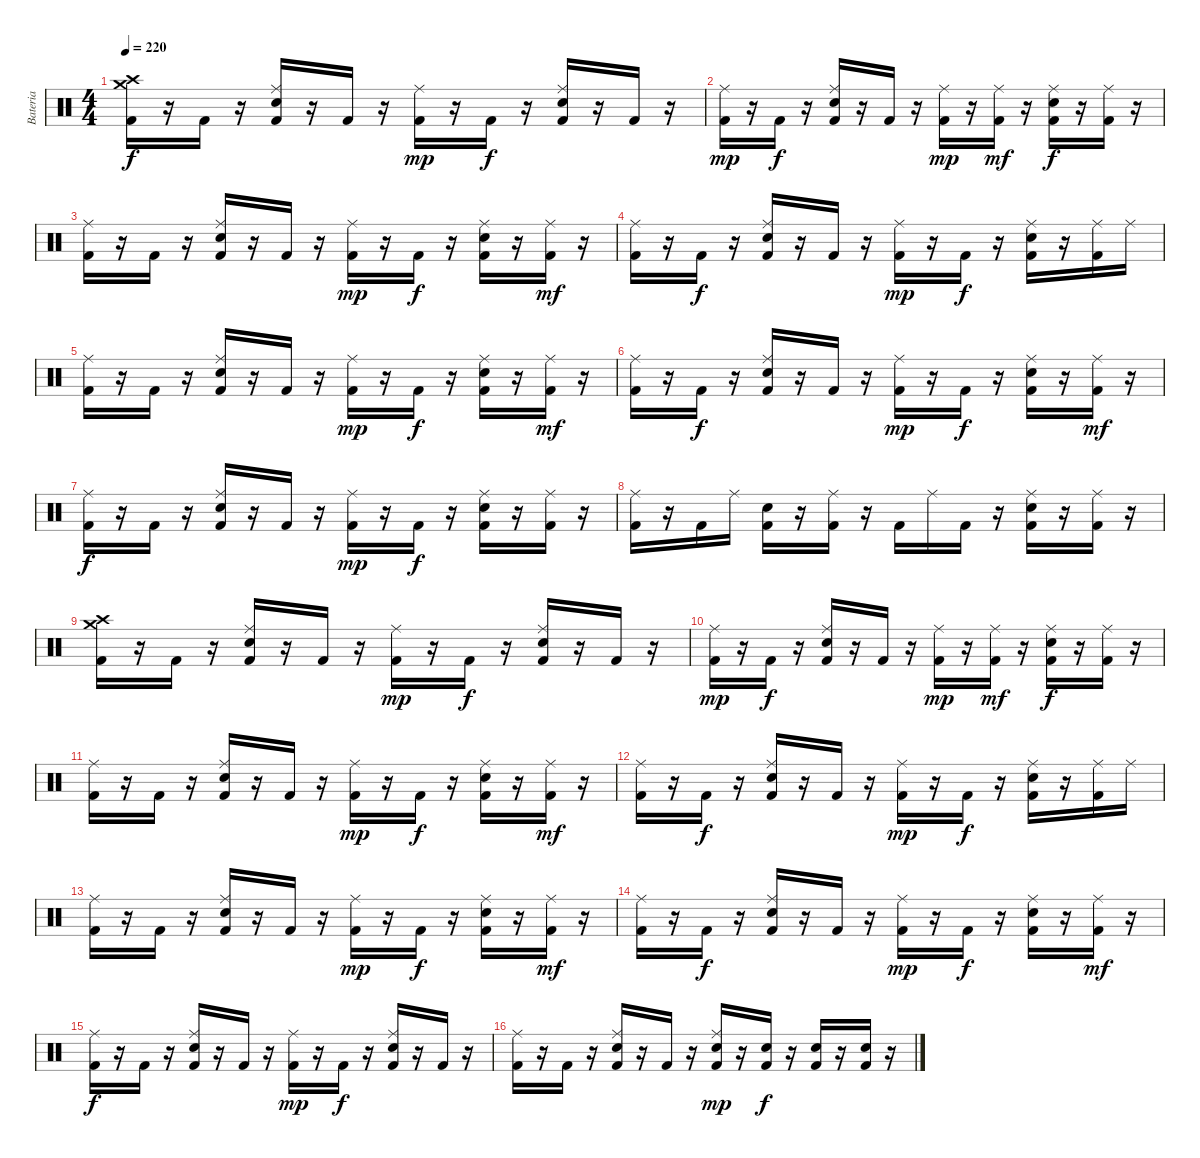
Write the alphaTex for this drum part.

\track ("Bateria" "Bateria") {instrument percussion}
\staff {score}
\articulation defaults
\ts (4 4)
\tempo 220
\clef neutral
\ks c
("Crash medium (hit)" "Crash high (hit)" "Kick (hit) 2").16{dy f} r.16 "Kick (hit) 2".16 r.16 ("Ride (middle)" "Electric Snare (hit)" "Kick (hit) 2").16 r.16 "Kick (hit) 2".16 r.16 ("Ride (middle)" "Kick (hit) 2").16{dy mp} r.16 "Kick (hit) 2".16{dy f} r.16 ("Ride (middle)" "Electric Snare (hit)" "Kick (hit) 2").16 r.16 "Kick (hit) 2".16 r.16 |
("Ride (middle)" "Kick (hit) 2").16{dy mp} r.16 "Kick (hit) 2".16{dy f} r.16 ("Ride (middle)" "Electric Snare (hit)" "Kick (hit) 2").16 r.16 "Kick (hit) 2".16 r.16 ("Ride (middle)" "Kick (hit) 2").16{dy mp} r.16 ("Ride (middle)" "Kick (hit) 2").16{dy mf} r.16 ("Ride (middle)" "Electric Snare (hit)" "Kick (hit) 2").16{dy f} r.16 ("Ride (middle)" "Kick (hit) 2").16 r.16 |
("Ride (middle)" "Kick (hit) 2").16 r.16 "Kick (hit) 2".16 r.16 ("Ride (middle)" "Electric Snare (hit)" "Kick (hit) 2").16 r.16 "Kick (hit) 2".16 r.16 ("Ride (middle)" "Kick (hit) 2").16{dy mp} r.16 "Kick (hit) 2".16{dy f} r.16 ("Ride (middle)" "Electric Snare (hit)" "Kick (hit) 2").16 r.16 ("Ride (middle)" "Kick (hit) 2").16{dy mf} r.16 |
("Ride (middle)" "Kick (hit) 2").16 r.16 "Kick (hit) 2".16{dy f} r.16 ("Ride (middle)" "Electric Snare (hit)" "Kick (hit) 2").16 r.16 "Kick (hit) 2".16 r.16 ("Ride (middle)" "Kick (hit) 2").16{dy mp} r.16 "Kick (hit) 2".16{dy f} r.16 ("Ride (middle)" "Electric Snare (hit)" "Kick (hit) 2").16 r.16 ("Ride (middle)" "Kick (hit) 2").16 "Ride (middle)".16 |
("Ride (middle)" "Kick (hit) 2").16 r.16 "Kick (hit) 2".16 r.16 ("Ride (middle)" "Electric Snare (hit)" "Kick (hit) 2").16 r.16 "Kick (hit) 2".16 r.16 ("Ride (middle)" "Kick (hit) 2").16{dy mp} r.16 "Kick (hit) 2".16{dy f} r.16 ("Ride (middle)" "Electric Snare (hit)" "Kick (hit) 2").16 r.16 ("Ride (middle)" "Kick (hit) 2").16{dy mf} r.16 |
("Ride (middle)" "Kick (hit) 2").16 r.16 "Kick (hit) 2".16{dy f} r.16 ("Ride (middle)" "Electric Snare (hit)" "Kick (hit) 2").16 r.16 "Kick (hit) 2".16 r.16 ("Ride (middle)" "Kick (hit) 2").16{dy mp} r.16 "Kick (hit) 2".16{dy f} r.16 ("Ride (middle)" "Electric Snare (hit)" "Kick (hit) 2").16 r.16 ("Ride (middle)" "Kick (hit) 2").16{dy mf} r.16 |
("Ride (middle)" "Kick (hit) 2").16{dy f} r.16 "Kick (hit) 2".16 r.16 ("Ride (middle)" "Electric Snare (hit)" "Kick (hit) 2").16 r.16 "Kick (hit) 2".16 r.16 ("Ride (middle)" "Kick (hit) 2").16{dy mp} r.16 "Kick (hit) 2".16{dy f} r.16 ("Ride (middle)" "Electric Snare (hit)" "Kick (hit) 2").16 r.16 ("Ride (middle)" "Kick (hit) 2").16 r.16 |
("Ride (middle)" "Kick (hit) 2").16 r.16 "Kick (hit) 2".16 "Ride (middle)".16 ("Electric Snare (hit)" "Kick (hit) 2").16 r.16 ("Ride (middle)" "Kick (hit) 2").16 r.16 "Kick (hit) 2".16 "Ride (middle)".16 "Kick (hit) 2".16 r.16 ("Ride (middle)" "Electric Snare (hit)" "Kick (hit) 2").16 r.16 ("Ride (middle)" "Kick (hit) 2").16 r.16 |
("Crash medium (hit)" "Crash high (hit)" "Kick (hit) 2").16 r.16 "Kick (hit) 2".16 r.16 ("Ride (middle)" "Electric Snare (hit)" "Kick (hit) 2").16 r.16 "Kick (hit) 2".16 r.16 ("Ride (middle)" "Kick (hit) 2").16{dy mp} r.16 "Kick (hit) 2".16{dy f} r.16 ("Ride (middle)" "Electric Snare (hit)" "Kick (hit) 2").16 r.16 "Kick (hit) 2".16 r.16 |
("Ride (middle)" "Kick (hit) 2").16{dy mp} r.16 "Kick (hit) 2".16{dy f} r.16 ("Ride (middle)" "Electric Snare (hit)" "Kick (hit) 2").16 r.16 "Kick (hit) 2".16 r.16 ("Ride (middle)" "Kick (hit) 2").16{dy mp} r.16 ("Ride (middle)" "Kick (hit) 2").16{dy mf} r.16 ("Ride (middle)" "Electric Snare (hit)" "Kick (hit) 2").16{dy f} r.16 ("Ride (middle)" "Kick (hit) 2").16 r.16 |
("Ride (middle)" "Kick (hit) 2").16 r.16 "Kick (hit) 2".16 r.16 ("Ride (middle)" "Electric Snare (hit)" "Kick (hit) 2").16 r.16 "Kick (hit) 2".16 r.16 ("Ride (middle)" "Kick (hit) 2").16{dy mp} r.16 "Kick (hit) 2".16{dy f} r.16 ("Ride (middle)" "Electric Snare (hit)" "Kick (hit) 2").16 r.16 ("Ride (middle)" "Kick (hit) 2").16{dy mf} r.16 |
("Ride (middle)" "Kick (hit) 2").16 r.16 "Kick (hit) 2".16{dy f} r.16 ("Ride (middle)" "Electric Snare (hit)" "Kick (hit) 2").16 r.16 "Kick (hit) 2".16 r.16 ("Ride (middle)" "Kick (hit) 2").16{dy mp} r.16 "Kick (hit) 2".16{dy f} r.16 ("Ride (middle)" "Electric Snare (hit)" "Kick (hit) 2").16 r.16 ("Ride (middle)" "Kick (hit) 2").16 "Ride (middle)".16 |
("Ride (middle)" "Kick (hit) 2").16 r.16 "Kick (hit) 2".16 r.16 ("Ride (middle)" "Electric Snare (hit)" "Kick (hit) 2").16 r.16 "Kick (hit) 2".16 r.16 ("Ride (middle)" "Kick (hit) 2").16{dy mp} r.16 "Kick (hit) 2".16{dy f} r.16 ("Ride (middle)" "Electric Snare (hit)" "Kick (hit) 2").16 r.16 ("Ride (middle)" "Kick (hit) 2").16{dy mf} r.16 |
("Ride (middle)" "Kick (hit) 2").16 r.16 "Kick (hit) 2".16{dy f} r.16 ("Ride (middle)" "Electric Snare (hit)" "Kick (hit) 2").16 r.16 "Kick (hit) 2".16 r.16 ("Ride (middle)" "Kick (hit) 2").16{dy mp} r.16 "Kick (hit) 2".16{dy f} r.16 ("Ride (middle)" "Electric Snare (hit)" "Kick (hit) 2").16 r.16 ("Ride (middle)" "Kick (hit) 2").16{dy mf} r.16 |
("Ride (middle)" "Kick (hit) 2").16{dy f} r.16 "Kick (hit) 2".16 r.16 ("Ride (middle)" "Electric Snare (hit)" "Kick (hit) 2").16 r.16 "Kick (hit) 2".16 r.16 ("Ride (middle)" "Kick (hit) 2").16{dy mp} r.16 "Kick (hit) 2".16{dy f} r.16 ("Ride (middle)" "Electric Snare (hit)" "Kick (hit) 2").16 r.16 "Kick (hit) 2".16 r.16 |
("Ride (middle)" "Kick (hit) 2").16 r.16 "Kick (hit) 2".16 r.16 ("Ride (middle)" "Electric Snare (hit)" "Kick (hit) 2").16 r.16 "Kick (hit) 2".16 r.16 ("Ride (middle)" "Electric Snare (hit)" "Kick (hit) 2").16{dy mp} r.16 ("Electric Snare (hit)" "Kick (hit) 2").16{dy f} r.16 ("Electric Snare (hit)" "Kick (hit) 2").16 r.16 ("Electric Snare (hit)" "Kick (hit) 2").16 r.16
